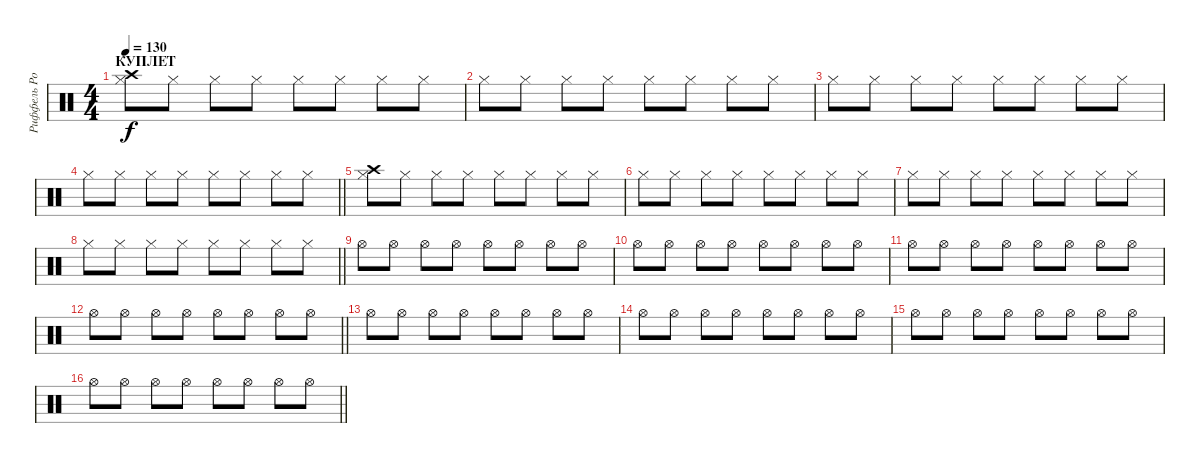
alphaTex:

\track ("Риффель Роман(хэты)" "Риффель Ро") {instrument percussion}
\staff {score}
\articulation defaults
\ts (4 4)
\section ("" "КУПЛЕТ")
\tempo 130
\clef neutral
\ks c
("Hi-Hat (closed)" "Crash high (hit)").8{dy f} "Hi-Hat (closed)".8 "Hi-Hat (closed)".8 "Hi-Hat (closed)".8 "Hi-Hat (closed)".8 "Hi-Hat (closed)".8 "Hi-Hat (closed)".8 "Hi-Hat (closed)".8 |
"Hi-Hat (closed)".8 "Hi-Hat (closed)".8 "Hi-Hat (closed)".8 "Hi-Hat (closed)".8 "Hi-Hat (closed)".8 "Hi-Hat (closed)".8 "Hi-Hat (closed)".8 "Hi-Hat (closed)".8 |
"Hi-Hat (closed)".8 "Hi-Hat (closed)".8 "Hi-Hat (closed)".8 "Hi-Hat (closed)".8 "Hi-Hat (closed)".8 "Hi-Hat (closed)".8 "Hi-Hat (closed)".8 "Hi-Hat (closed)".8 |
\barLineRight lightlight "Hi-Hat (closed)".8 "Hi-Hat (closed)".8 "Hi-Hat (closed)".8 "Hi-Hat (closed)".8 "Hi-Hat (closed)".8 "Hi-Hat (closed)".8 "Hi-Hat (closed)".8 "Hi-Hat (closed)".8
|
("Hi-Hat (closed)" "Crash high (hit)").8 "Hi-Hat (closed)".8 "Hi-Hat (closed)".8 "Hi-Hat (closed)".8 "Hi-Hat (closed)".8 "Hi-Hat (closed)".8 "Hi-Hat (closed)".8 "Hi-Hat (closed)".8 |
"Hi-Hat (closed)".8 "Hi-Hat (closed)".8 "Hi-Hat (closed)".8 "Hi-Hat (closed)".8 "Hi-Hat (closed)".8 "Hi-Hat (closed)".8 "Hi-Hat (closed)".8 "Hi-Hat (closed)".8 |
"Hi-Hat (closed)".8 "Hi-Hat (closed)".8 "Hi-Hat (closed)".8 "Hi-Hat (closed)".8 "Hi-Hat (closed)".8 "Hi-Hat (closed)".8 "Hi-Hat (closed)".8 "Hi-Hat (closed)".8 |
\barLineRight lightlight "Hi-Hat (closed)".8 "Hi-Hat (closed)".8 "Hi-Hat (closed)".8 "Hi-Hat (closed)".8 "Hi-Hat (closed)".8 "Hi-Hat (closed)".8 "Hi-Hat (closed)".8 "Hi-Hat (closed)".8
|
"Hi-Hat (open)".8 "Hi-Hat (open)".8 "Hi-Hat (open)".8 "Hi-Hat (open)".8 "Hi-Hat (open)".8 "Hi-Hat (open)".8 "Hi-Hat (open)".8 "Hi-Hat (open)".8 |
"Hi-Hat (open)".8 "Hi-Hat (open)".8 "Hi-Hat (open)".8 "Hi-Hat (open)".8 "Hi-Hat (open)".8 "Hi-Hat (open)".8 "Hi-Hat (open)".8 "Hi-Hat (open)".8 |
"Hi-Hat (open)".8 "Hi-Hat (open)".8 "Hi-Hat (open)".8 "Hi-Hat (open)".8 "Hi-Hat (open)".8 "Hi-Hat (open)".8 "Hi-Hat (open)".8 "Hi-Hat (open)".8 |
\barLineRight lightlight "Hi-Hat (open)".8 "Hi-Hat (open)".8 "Hi-Hat (open)".8 "Hi-Hat (open)".8 "Hi-Hat (open)".8 "Hi-Hat (open)".8 "Hi-Hat (open)".8 "Hi-Hat (open)".8
|
"Hi-Hat (open)".8 "Hi-Hat (open)".8 "Hi-Hat (open)".8 "Hi-Hat (open)".8 "Hi-Hat (open)".8 "Hi-Hat (open)".8 "Hi-Hat (open)".8 "Hi-Hat (open)".8 |
"Hi-Hat (open)".8 "Hi-Hat (open)".8 "Hi-Hat (open)".8 "Hi-Hat (open)".8 "Hi-Hat (open)".8 "Hi-Hat (open)".8 "Hi-Hat (open)".8 "Hi-Hat (open)".8 |
"Hi-Hat (open)".8 "Hi-Hat (open)".8 "Hi-Hat (open)".8 "Hi-Hat (open)".8 "Hi-Hat (open)".8 "Hi-Hat (open)".8 "Hi-Hat (open)".8 "Hi-Hat (open)".8 |
\barLineRight lightlight "Hi-Hat (open)".8 "Hi-Hat (open)".8 "Hi-Hat (open)".8 "Hi-Hat (open)".8 "Hi-Hat (open)".8 "Hi-Hat (open)".8 "Hi-Hat (open)".8 "Hi-Hat (open)".8
